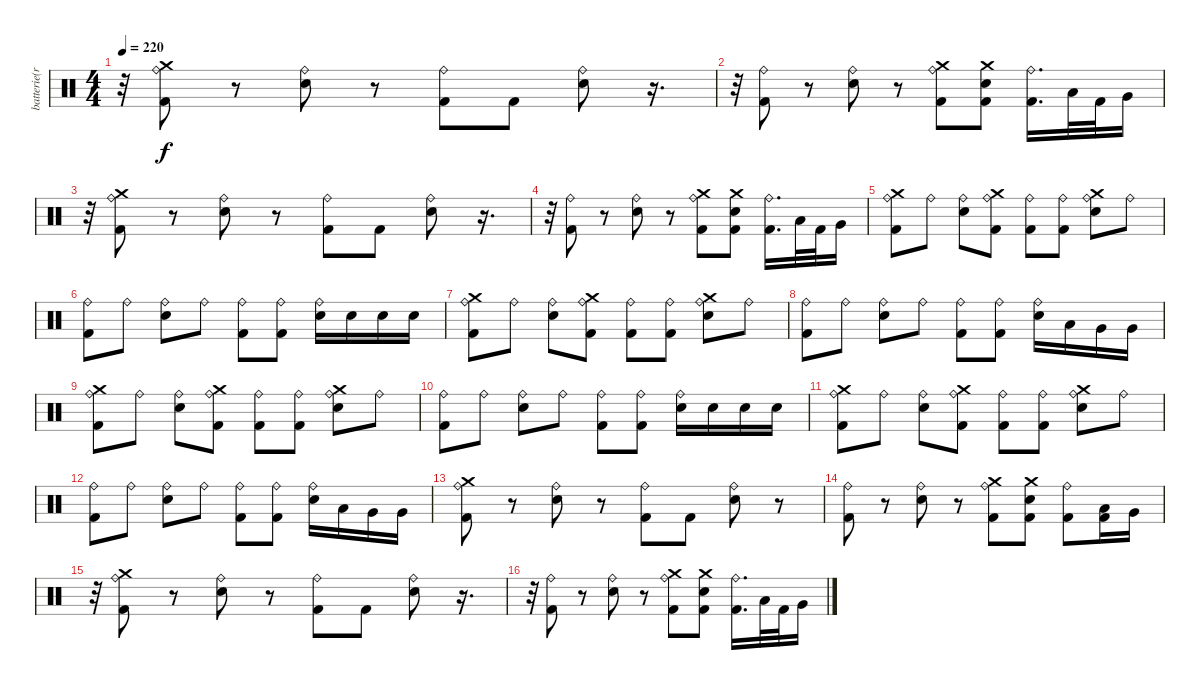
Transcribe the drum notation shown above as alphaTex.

\track ("batterie(richie)" "batterie(r") {instrument percussion}
\staff {score}
\articulation defaults
\ts (4 4)
\tempo 220
\clef neutral
\ks c
r.32{dy f} ("Crash medium (hit)" "Ride (bell)" "Kick (hit) 2").8 r.8 ("Ride (bell)" "Electric Snare (hit)").8 r.8 ("Ride (bell)" "Kick (hit) 2").8 "Kick (hit) 2".8 ("Ride (bell)" "Electric Snare (hit)").8 r.16{d} |
r.32 ("Ride (bell)" "Kick (hit) 2").8 r.8 ("Ride (bell)" "Electric Snare (hit)").8 r.8 ("Crash medium (hit)" "Ride (bell)" "Kick (hit) 2").8 ("Electric Snare (hit)" "Crash medium (hit)" "Kick (hit) 2").8 ("Kick (hit) 2" "Ride (bell)").16{d} "Low Tom (hit)".32 "Kick (hit) 2".32 "Very Low Tom (hit)".16 |
r.32 ("Crash medium (hit)" "Ride (bell)" "Kick (hit) 2").8 r.8 ("Ride (bell)" "Electric Snare (hit)").8 r.8 ("Ride (bell)" "Kick (hit) 2").8 "Kick (hit) 2".8 ("Ride (bell)" "Electric Snare (hit)").8 r.16{d} |
r.32 ("Ride (bell)" "Kick (hit) 2").8 r.8 ("Ride (bell)" "Electric Snare (hit)").8 r.8 ("Crash medium (hit)" "Ride (bell)" "Kick (hit) 2").8 ("Electric Snare (hit)" "Crash medium (hit)" "Kick (hit) 2").8 ("Kick (hit) 2" "Ride (bell)").16{d} "Low Tom (hit)".32 "Kick (hit) 2".32 "Very Low Tom (hit)".16 |
("Crash medium (hit)" "Kick (hit) 2" "Ride (bell)").8 "Ride (bell)".8 ("Electric Snare (hit)" "Ride (bell)").8 ("Kick (hit) 2" "Crash medium (hit)" "Ride (bell)").8 ("Kick (hit) 2" "Ride (bell)").8 ("Kick (hit) 2" "Ride (bell)").8 ("Crash medium (hit)" "Electric Snare (hit)" "Ride (bell)").8 "Ride (bell)".8 |
("Kick (hit) 2" "Ride (bell)").8 "Ride (bell)".8 ("Electric Snare (hit)" "Ride (bell)").8 "Ride (bell)".8 ("Kick (hit) 2" "Ride (bell)").8 ("Kick (hit) 2" "Ride (bell)").8 ("Electric Snare (hit)" "Ride (bell)").16 "Electric Snare (hit)".16 "Electric Snare (hit)".16 "Electric Snare (hit)".16 |
("Crash medium (hit)" "Kick (hit) 2" "Ride (bell)").8 "Ride (bell)".8 ("Electric Snare (hit)" "Ride (bell)").8 ("Kick (hit) 2" "Crash medium (hit)" "Ride (bell)").8 ("Kick (hit) 2" "Ride (bell)").8 ("Kick (hit) 2" "Ride (bell)").8 ("Crash medium (hit)" "Electric Snare (hit)" "Ride (bell)").8 "Ride (bell)".8 |
("Kick (hit) 2" "Ride (bell)").8 "Ride (bell)".8 ("Electric Snare (hit)" "Ride (bell)").8 "Ride (bell)".8 ("Kick (hit) 2" "Ride (bell)").8 ("Kick (hit) 2" "Ride (bell)").8 ("Electric Snare (hit)" "Ride (bell)").16 "Low Tom (hit)".16 "Very Low Tom (hit)".16 "Very Low Tom (hit)".16 |
("Crash medium (hit)" "Kick (hit) 2" "Ride (bell)").8 "Ride (bell)".8 ("Electric Snare (hit)" "Ride (bell)").8 ("Kick (hit) 2" "Crash medium (hit)" "Ride (bell)").8 ("Kick (hit) 2" "Ride (bell)").8 ("Kick (hit) 2" "Ride (bell)").8 ("Crash medium (hit)" "Electric Snare (hit)" "Ride (bell)").8 "Ride (bell)".8 |
("Kick (hit) 2" "Ride (bell)").8 "Ride (bell)".8 ("Electric Snare (hit)" "Ride (bell)").8 "Ride (bell)".8 ("Kick (hit) 2" "Ride (bell)").8 ("Kick (hit) 2" "Ride (bell)").8 ("Electric Snare (hit)" "Ride (bell)").16 "Electric Snare (hit)".16 "Electric Snare (hit)".16 "Electric Snare (hit)".16 |
("Crash medium (hit)" "Kick (hit) 2" "Ride (bell)").8 "Ride (bell)".8 ("Electric Snare (hit)" "Ride (bell)").8 ("Kick (hit) 2" "Crash medium (hit)" "Ride (bell)").8 ("Kick (hit) 2" "Ride (bell)").8 ("Kick (hit) 2" "Ride (bell)").8 ("Crash medium (hit)" "Electric Snare (hit)" "Ride (bell)").8 "Ride (bell)".8 |
("Kick (hit) 2" "Ride (bell)").8 "Ride (bell)".8 ("Electric Snare (hit)" "Ride (bell)").8 "Ride (bell)".8 ("Kick (hit) 2" "Ride (bell)").8 ("Kick (hit) 2" "Ride (bell)").8 ("Electric Snare (hit)" "Ride (bell)").16 "Low Tom (hit)".16 "Very Low Tom (hit)".16 "Very Low Tom (hit)".16 |
("Crash medium (hit)" "Ride (bell)" "Kick (hit) 2").8 r.8 ("Ride (bell)" "Electric Snare (hit)").8 r.8 ("Ride (bell)" "Kick (hit) 2").8 "Kick (hit) 2".8 ("Ride (bell)" "Electric Snare (hit)").8 r.8 |
("Ride (bell)" "Kick (hit) 2").8 r.8 ("Ride (bell)" "Electric Snare (hit)").8 r.8 ("Crash medium (hit)" "Ride (bell)" "Kick (hit) 2").8 ("Electric Snare (hit)" "Crash medium (hit)" "Kick (hit) 2").8 ("Kick (hit) 2" "Ride (bell)").8 ("Low Tom (hit)" "Kick (hit) 2").16 "Very Low Tom (hit)".16 |
r.32 ("Crash medium (hit)" "Ride (bell)" "Kick (hit) 2").8 r.8 ("Ride (bell)" "Electric Snare (hit)").8 r.8 ("Ride (bell)" "Kick (hit) 2").8 "Kick (hit) 2".8 ("Ride (bell)" "Electric Snare (hit)").8 r.16{d} |
r.32 ("Ride (bell)" "Kick (hit) 2").8 r.8 ("Ride (bell)" "Electric Snare (hit)").8 r.8 ("Crash medium (hit)" "Ride (bell)" "Kick (hit) 2").8 ("Electric Snare (hit)" "Crash medium (hit)" "Kick (hit) 2").8 ("Kick (hit) 2" "Ride (bell)").16{d} "Low Tom (hit)".32 "Kick (hit) 2".32 "Very Low Tom (hit)".16
